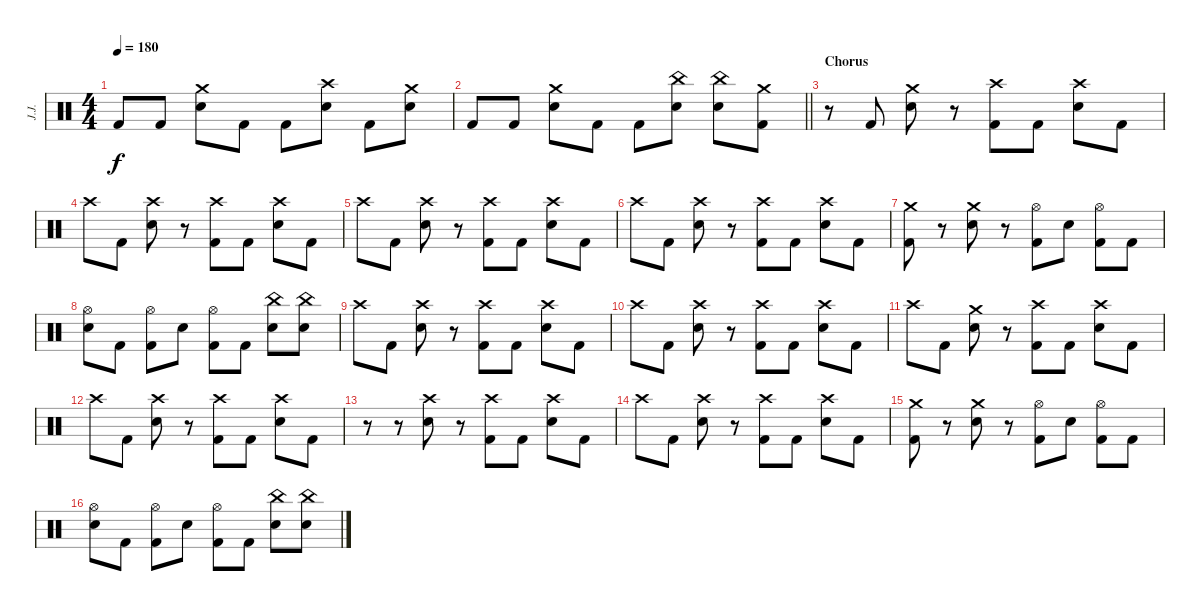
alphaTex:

\track ("J.J." "J.J.") {instrument percussion}
\staff {score}
\articulation defaults
\ts (4 4)
\tempo 180
\clef neutral
\ks c "Kick (hit) 2".8{dy f} "Kick (hit) 2".8
("Crash medium (hit)" "Electric Snare (hit)").8 "Kick (hit) 2".8 "Kick (hit) 2".8 ("Crash high (hit)" "Electric Snare (hit)").8 "Kick (hit) 2".8 ("Crash medium (hit)" "Electric Snare (hit)").8 |
\barLineRight lightlight "Kick (hit) 2".8 "Kick (hit) 2".8
("Crash medium (hit)" "Electric Snare (hit)").8 "Kick (hit) 2".8 "Kick (hit) 2".8 ("China (hit)" "Electric Snare (hit)").8 ("China (hit)" "Electric Snare (hit)").8 ("Crash medium (hit)" "Kick (hit) 2").8 |
\section ("" "Chorus")
r.8 "Kick (hit) 2".8 ("Crash medium (hit)" "Electric Snare (hit)").8 r.8 ("Crash high (hit)" "Kick (hit) 2").8 "Kick (hit) 2".8 ("Crash high (hit)" "Electric Snare (hit)").8 "Kick (hit) 2".8 |
"Crash high (hit)".8 "Kick (hit) 2".8 ("Crash high (hit)" "Electric Snare (hit)").8 r.8 ("Crash high (hit)" "Kick (hit) 2").8 "Kick (hit) 2".8 ("Crash high (hit)" "Electric Snare (hit)").8 "Kick (hit) 2".8 |
"Crash high (hit)".8 "Kick (hit) 2".8 ("Crash high (hit)" "Electric Snare (hit)").8 r.8 ("Crash high (hit)" "Kick (hit) 2").8 "Kick (hit) 2".8 ("Crash high (hit)" "Electric Snare (hit)").8 "Kick (hit) 2".8 |
"Crash high (hit)".8 "Kick (hit) 2".8 ("Crash high (hit)" "Electric Snare (hit)").8 r.8 ("Crash high (hit)" "Kick (hit) 2").8 "Kick (hit) 2".8 ("Crash high (hit)" "Electric Snare (hit)").8 "Kick (hit) 2".8 |
("Crash medium (hit)" "Kick (hit) 2").8 r.8 ("Crash medium (hit)" "Electric Snare (hit)").8 r.8 ("Hi-Hat (open)" "Kick (hit) 2").8 "Electric Snare (hit)".8 ("Hi-Hat (open)" "Kick (hit) 2").8 "Kick (hit) 2".8 |
("Hi-Hat (open)" "Electric Snare (hit)").8 "Kick (hit) 2".8 ("Hi-Hat (open)" "Kick (hit) 2").8 "Electric Snare (hit)".8 ("Hi-Hat (open)" "Kick (hit) 2").8 "Kick (hit) 2".8 ("China (hit)" "Electric Snare (hit)").8 ("China (hit)" "Electric Snare (hit)").8 |
"Crash high (hit)".8 "Kick (hit) 2".8 ("Crash high (hit)" "Electric Snare (hit)").8 r.8 ("Crash high (hit)" "Kick (hit) 2").8 "Kick (hit) 2".8 ("Crash high (hit)" "Electric Snare (hit)").8 "Kick (hit) 2".8 |
"Crash high (hit)".8 "Kick (hit) 2".8 ("Crash high (hit)" "Electric Snare (hit)").8 r.8 ("Crash high (hit)" "Kick (hit) 2").8 "Kick (hit) 2".8 ("Crash high (hit)" "Electric Snare (hit)").8 "Kick (hit) 2".8 |
"Crash high (hit)".8 "Kick (hit) 2".8 ("Crash medium (hit)" "Electric Snare (hit)").8 r.8 ("Crash high (hit)" "Kick (hit) 2").8 "Kick (hit) 2".8 ("Crash high (hit)" "Electric Snare (hit)").8 "Kick (hit) 2".8 |
"Crash high (hit)".8 "Kick (hit) 2".8 ("Crash high (hit)" "Electric Snare (hit)").8 r.8 ("Crash high (hit)" "Kick (hit) 2").8 "Kick (hit) 2".8 ("Crash high (hit)" "Electric Snare (hit)").8 "Kick (hit) 2".8 |
r.8 r.8 ("Crash high (hit)" "Electric Snare (hit)").8 r.8 ("Crash high (hit)" "Kick (hit) 2").8 "Kick (hit) 2".8 ("Crash high (hit)" "Electric Snare (hit)").8 "Kick (hit) 2".8 |
"Crash high (hit)".8 "Kick (hit) 2".8 ("Crash high (hit)" "Electric Snare (hit)").8 r.8 ("Crash high (hit)" "Kick (hit) 2").8 "Kick (hit) 2".8 ("Crash high (hit)" "Electric Snare (hit)").8 "Kick (hit) 2".8 |
("Crash medium (hit)" "Kick (hit) 2").8 r.8 ("Crash medium (hit)" "Electric Snare (hit)").8 r.8 ("Hi-Hat (open)" "Kick (hit) 2").8 "Electric Snare (hit)".8 ("Hi-Hat (open)" "Kick (hit) 2").8 "Kick (hit) 2".8 |
("Hi-Hat (open)" "Electric Snare (hit)").8 "Kick (hit) 2".8 ("Hi-Hat (open)" "Kick (hit) 2").8 "Electric Snare (hit)".8 ("Hi-Hat (open)" "Kick (hit) 2").8 "Kick (hit) 2".8 ("China (hit)" "Electric Snare (hit)").8 ("China (hit)" "Electric Snare (hit)").8
